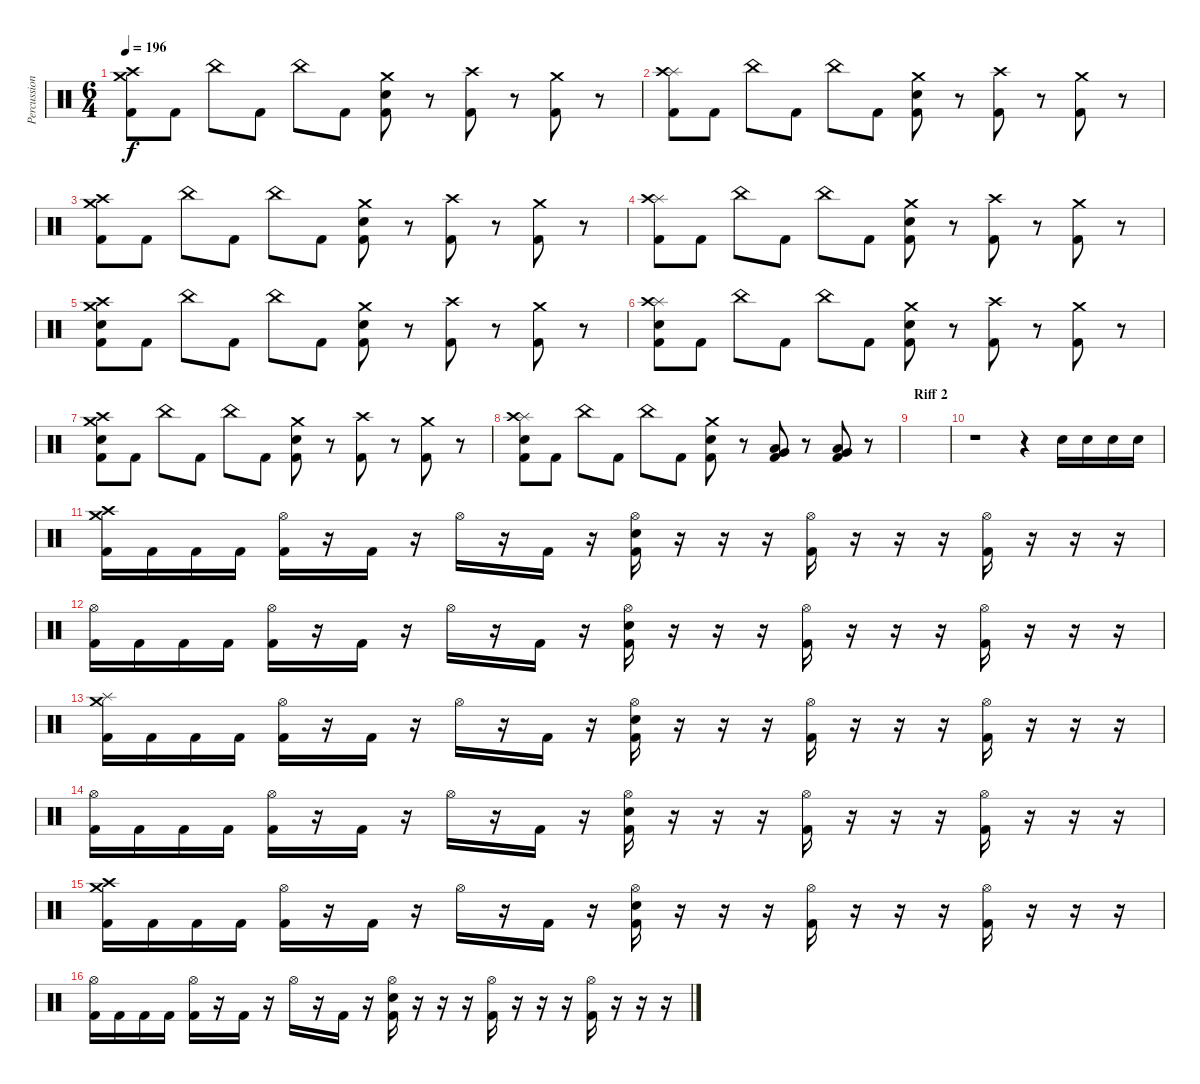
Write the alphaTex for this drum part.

\track ("Percussion" "Percussion") {instrument percussion}
\staff {score}
\articulation defaults
\ts (6 4)
\tempo 196
\clef neutral
\ks c
("Crash medium (hit)" "Crash high (hit)" "Kick (hit) 2").8{dy f} "Kick (hit) 2".8 "China (hit)".8 "Kick (hit) 2".8 "China (hit)".8 "Kick (hit) 2".8 ("Crash medium (hit)" "Electric Snare (hit)" "Kick (hit) 2").8 r.8 ("Crash high (hit)" "Kick (hit) 2").8 r.8 ("Crash medium (hit)" "Kick (hit) 2").8 r.8 |
("Splash (hit)" "Crash high (hit)" "Kick (hit) 2").8 "Kick (hit) 2".8 "China (hit)".8 "Kick (hit) 2".8 "China (hit)".8 "Kick (hit) 2".8 ("Crash medium (hit)" "Electric Snare (hit)" "Kick (hit) 2").8 r.8 ("Crash high (hit)" "Kick (hit) 2").8 r.8 ("Crash medium (hit)" "Kick (hit) 2").8 r.8 |
("Crash medium (hit)" "Crash high (hit)" "Kick (hit) 2").8 "Kick (hit) 2".8 "China (hit)".8 "Kick (hit) 2".8 "China (hit)".8 "Kick (hit) 2".8 ("Crash medium (hit)" "Electric Snare (hit)" "Kick (hit) 2").8 r.8 ("Crash high (hit)" "Kick (hit) 2").8 r.8 ("Crash medium (hit)" "Kick (hit) 2").8 r.8 |
("Splash (hit)" "Crash high (hit)" "Kick (hit) 2").8 "Kick (hit) 2".8 "China (hit)".8 "Kick (hit) 2".8 "China (hit)".8 "Kick (hit) 2".8 ("Crash medium (hit)" "Electric Snare (hit)" "Kick (hit) 2").8 r.8 ("Crash high (hit)" "Kick (hit) 2").8 r.8 ("Crash medium (hit)" "Kick (hit) 2").8 r.8 |
("Crash medium (hit)" "Crash high (hit)" "Electric Snare (hit)" "Kick (hit) 2").8 "Kick (hit) 2".8 "China (hit)".8 "Kick (hit) 2".8 "China (hit)".8 "Kick (hit) 2".8 ("Crash medium (hit)" "Electric Snare (hit)" "Kick (hit) 2").8 r.8 ("Crash high (hit)" "Kick (hit) 2").8 r.8 ("Crash medium (hit)" "Kick (hit) 2").8 r.8 |
("Splash (hit)" "Crash high (hit)" "Electric Snare (hit)" "Kick (hit) 2").8 "Kick (hit) 2".8 "China (hit)".8 "Kick (hit) 2".8 "China (hit)".8 "Kick (hit) 2".8 ("Crash medium (hit)" "Electric Snare (hit)" "Kick (hit) 2").8 r.8 ("Crash high (hit)" "Kick (hit) 2").8 r.8 ("Crash medium (hit)" "Kick (hit) 2").8 r.8 |
("Crash medium (hit)" "Crash high (hit)" "Electric Snare (hit)" "Kick (hit) 2").8 "Kick (hit) 2".8 "China (hit)".8 "Kick (hit) 2".8 "China (hit)".8 "Kick (hit) 2".8 ("Crash medium (hit)" "Electric Snare (hit)" "Kick (hit) 2").8 r.8 ("Crash high (hit)" "Kick (hit) 2").8 r.8 ("Crash medium (hit)" "Kick (hit) 2").8 r.8 |
("Splash (hit)" "Crash high (hit)" "Electric Snare (hit)" "Kick (hit) 2").8 "Kick (hit) 2".8 "China (hit)".8 "Kick (hit) 2".8 "China (hit)".8 "Kick (hit) 2".8 ("Crash medium (hit)" "Electric Snare (hit)" "Kick (hit) 2").8 r.8 ("Very Low Tom (hit)" "Low Floor Tom (hit)" "Kick (hit) 2").8 r.8 ("Very Low Tom (hit)" "Low Floor Tom (hit)" "Kick (hit) 2").8 r.8 |
\section ("" "Riff 2")
|
r.1 r.4 "Electric Snare (hit)".16 "Electric Snare (hit)".16 "Electric Snare (hit)".16 "Electric Snare (hit)".16 |
("Crash medium (hit)" "Crash high (hit)" "Kick (hit) 2").16 "Kick (hit) 2".16 "Kick (hit) 2".16 "Kick (hit) 2".16 ("Hi-Hat (open)" "Kick (hit) 2").16 r.16 "Kick (hit) 2".16 r.16 "Hi-Hat (open)".16 r.16 "Kick (hit) 2".16 r.16 ("Hi-Hat (open)" "Electric Snare (hit)" "Kick (hit) 2").16 r.16 r.16 r.16 ("Hi-Hat (open)" "Kick (hit) 2").16 r.16 r.16 r.16 ("Hi-Hat (open)" "Kick (hit) 2").16 r.16 r.16 r.16 |
("Hi-Hat (open)" "Kick (hit) 2").16 "Kick (hit) 2".16 "Kick (hit) 2".16 "Kick (hit) 2".16 ("Hi-Hat (open)" "Kick (hit) 2").16 r.16 "Kick (hit) 2".16 r.16 "Hi-Hat (open)".16 r.16 "Kick (hit) 2".16 r.16 ("Hi-Hat (open)" "Electric Snare (hit)" "Kick (hit) 2").16 r.16 r.16 r.16 ("Hi-Hat (open)" "Kick (hit) 2").16 r.16 r.16 r.16 ("Hi-Hat (open)" "Kick (hit) 2").16 r.16 r.16 r.16 |
("Crash medium (hit)" "Splash (hit)" "Kick (hit) 2").16 "Kick (hit) 2".16 "Kick (hit) 2".16 "Kick (hit) 2".16 ("Hi-Hat (open)" "Kick (hit) 2").16 r.16 "Kick (hit) 2".16 r.16 "Hi-Hat (open)".16 r.16 "Kick (hit) 2".16 r.16 ("Hi-Hat (open)" "Electric Snare (hit)" "Kick (hit) 2").16 r.16 r.16 r.16 ("Hi-Hat (open)" "Kick (hit) 2").16 r.16 r.16 r.16 ("Hi-Hat (open)" "Kick (hit) 2").16 r.16 r.16 r.16 |
("Hi-Hat (open)" "Kick (hit) 2").16 "Kick (hit) 2".16 "Kick (hit) 2".16 "Kick (hit) 2".16 ("Hi-Hat (open)" "Kick (hit) 2").16 r.16 "Kick (hit) 2".16 r.16 "Hi-Hat (open)".16 r.16 "Kick (hit) 2".16 r.16 ("Hi-Hat (open)" "Electric Snare (hit)" "Kick (hit) 2").16 r.16 r.16 r.16 ("Hi-Hat (open)" "Kick (hit) 2").16 r.16 r.16 r.16 ("Hi-Hat (open)" "Kick (hit) 2").16 r.16 r.16 r.16 |
("Crash medium (hit)" "Crash high (hit)" "Kick (hit) 2").16 "Kick (hit) 2".16 "Kick (hit) 2".16 "Kick (hit) 2".16 ("Hi-Hat (open)" "Kick (hit) 2").16 r.16 "Kick (hit) 2".16 r.16 "Hi-Hat (open)".16 r.16 "Kick (hit) 2".16 r.16 ("Hi-Hat (open)" "Electric Snare (hit)" "Kick (hit) 2").16 r.16 r.16 r.16 ("Hi-Hat (open)" "Kick (hit) 2").16 r.16 r.16 r.16 ("Hi-Hat (open)" "Kick (hit) 2").16 r.16 r.16 r.16 |
("Hi-Hat (open)" "Kick (hit) 2").16 "Kick (hit) 2".16 "Kick (hit) 2".16 "Kick (hit) 2".16 ("Hi-Hat (open)" "Kick (hit) 2").16 r.16 "Kick (hit) 2".16 r.16 "Hi-Hat (open)".16 r.16 "Kick (hit) 2".16 r.16 ("Hi-Hat (open)" "Electric Snare (hit)" "Kick (hit) 2").16 r.16 r.16 r.16 ("Hi-Hat (open)" "Kick (hit) 2").16 r.16 r.16 r.16 ("Hi-Hat (open)" "Kick (hit) 2").16 r.16 r.16 r.16
